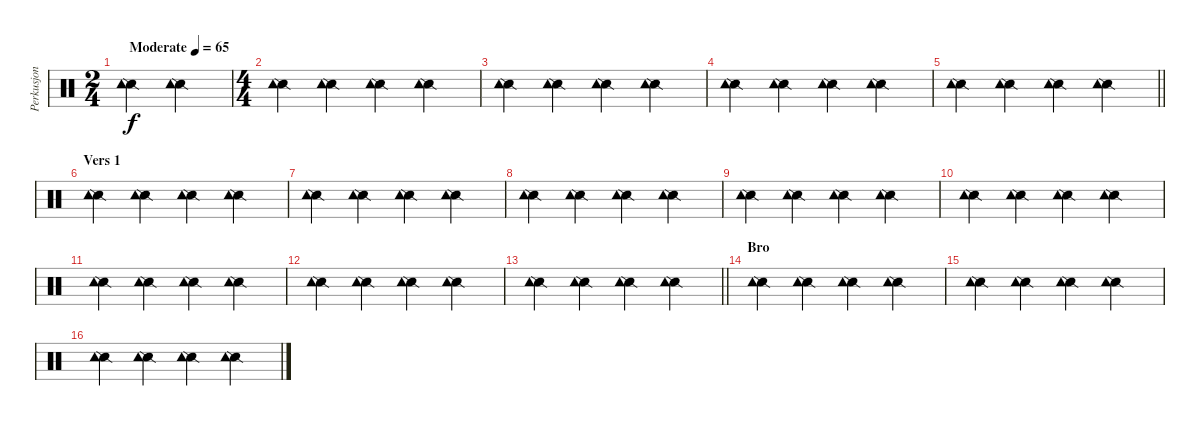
\track ("Perkusjon" "Perkusjon") {instrument percussion}
\staff {score}
\articulation defaults
\ts (2 4)
\tempo (65 "Moderate")
\clef neutral
\ks c
("Snare (side stick) 2" "Tambourine (hit)").4{dy f} ("Snare (side stick) 2" "Tambourine (hit)").4 |
\ts (4 4)
("Snare (side stick) 2" "Tambourine (hit)").4 ("Snare (side stick) 2" "Tambourine (hit)").4 ("Snare (side stick) 2" "Tambourine (hit)").4 ("Snare (side stick) 2" "Tambourine (hit)").4 |
("Snare (side stick) 2" "Tambourine (hit)").4 ("Snare (side stick) 2" "Tambourine (hit)").4 ("Snare (side stick) 2" "Tambourine (hit)").4 ("Snare (side stick) 2" "Tambourine (hit)").4 |
("Snare (side stick) 2" "Tambourine (hit)").4 ("Snare (side stick) 2" "Tambourine (hit)").4 ("Snare (side stick) 2" "Tambourine (hit)").4 ("Snare (side stick) 2" "Tambourine (hit)").4 |
\barLineRight lightlight
("Snare (side stick) 2" "Tambourine (hit)").4 ("Snare (side stick) 2" "Tambourine (hit)").4 ("Snare (side stick) 2" "Tambourine (hit)").4 ("Snare (side stick) 2" "Tambourine (hit)").4 |
\section ("" "Vers 1")
("Snare (side stick) 2" "Tambourine (hit)").4 ("Snare (side stick) 2" "Tambourine (hit)").4 ("Snare (side stick) 2" "Tambourine (hit)").4 ("Snare (side stick) 2" "Tambourine (hit)").4 |
("Snare (side stick) 2" "Tambourine (hit)").4 ("Snare (side stick) 2" "Tambourine (hit)").4 ("Snare (side stick) 2" "Tambourine (hit)").4 ("Snare (side stick) 2" "Tambourine (hit)").4 |
("Snare (side stick) 2" "Tambourine (hit)").4 ("Snare (side stick) 2" "Tambourine (hit)").4 ("Snare (side stick) 2" "Tambourine (hit)").4 ("Snare (side stick) 2" "Tambourine (hit)").4 |
("Snare (side stick) 2" "Tambourine (hit)").4 ("Snare (side stick) 2" "Tambourine (hit)").4 ("Snare (side stick) 2" "Tambourine (hit)").4 ("Snare (side stick) 2" "Tambourine (hit)").4 |
("Snare (side stick) 2" "Tambourine (hit)").4 ("Snare (side stick) 2" "Tambourine (hit)").4 ("Snare (side stick) 2" "Tambourine (hit)").4 ("Snare (side stick) 2" "Tambourine (hit)").4 |
("Snare (side stick) 2" "Tambourine (hit)").4 ("Snare (side stick) 2" "Tambourine (hit)").4 ("Snare (side stick) 2" "Tambourine (hit)").4 ("Snare (side stick) 2" "Tambourine (hit)").4 |
("Snare (side stick) 2" "Tambourine (hit)").4 ("Snare (side stick) 2" "Tambourine (hit)").4 ("Snare (side stick) 2" "Tambourine (hit)").4 ("Snare (side stick) 2" "Tambourine (hit)").4 |
\barLineRight lightlight
("Snare (side stick) 2" "Tambourine (hit)").4 ("Snare (side stick) 2" "Tambourine (hit)").4 ("Snare (side stick) 2" "Tambourine (hit)").4 ("Snare (side stick) 2" "Tambourine (hit)").4 |
\section ("" "Bro")
("Snare (side stick) 2" "Tambourine (hit)").4 ("Snare (side stick) 2" "Tambourine (hit)").4 ("Snare (side stick) 2" "Tambourine (hit)").4 ("Snare (side stick) 2" "Tambourine (hit)").4 |
("Snare (side stick) 2" "Tambourine (hit)").4 ("Snare (side stick) 2" "Tambourine (hit)").4 ("Snare (side stick) 2" "Tambourine (hit)").4 ("Snare (side stick) 2" "Tambourine (hit)").4 |
("Snare (side stick) 2" "Tambourine (hit)").4 ("Snare (side stick) 2" "Tambourine (hit)").4 ("Snare (side stick) 2" "Tambourine (hit)").4 ("Snare (side stick) 2" "Tambourine (hit)").4
